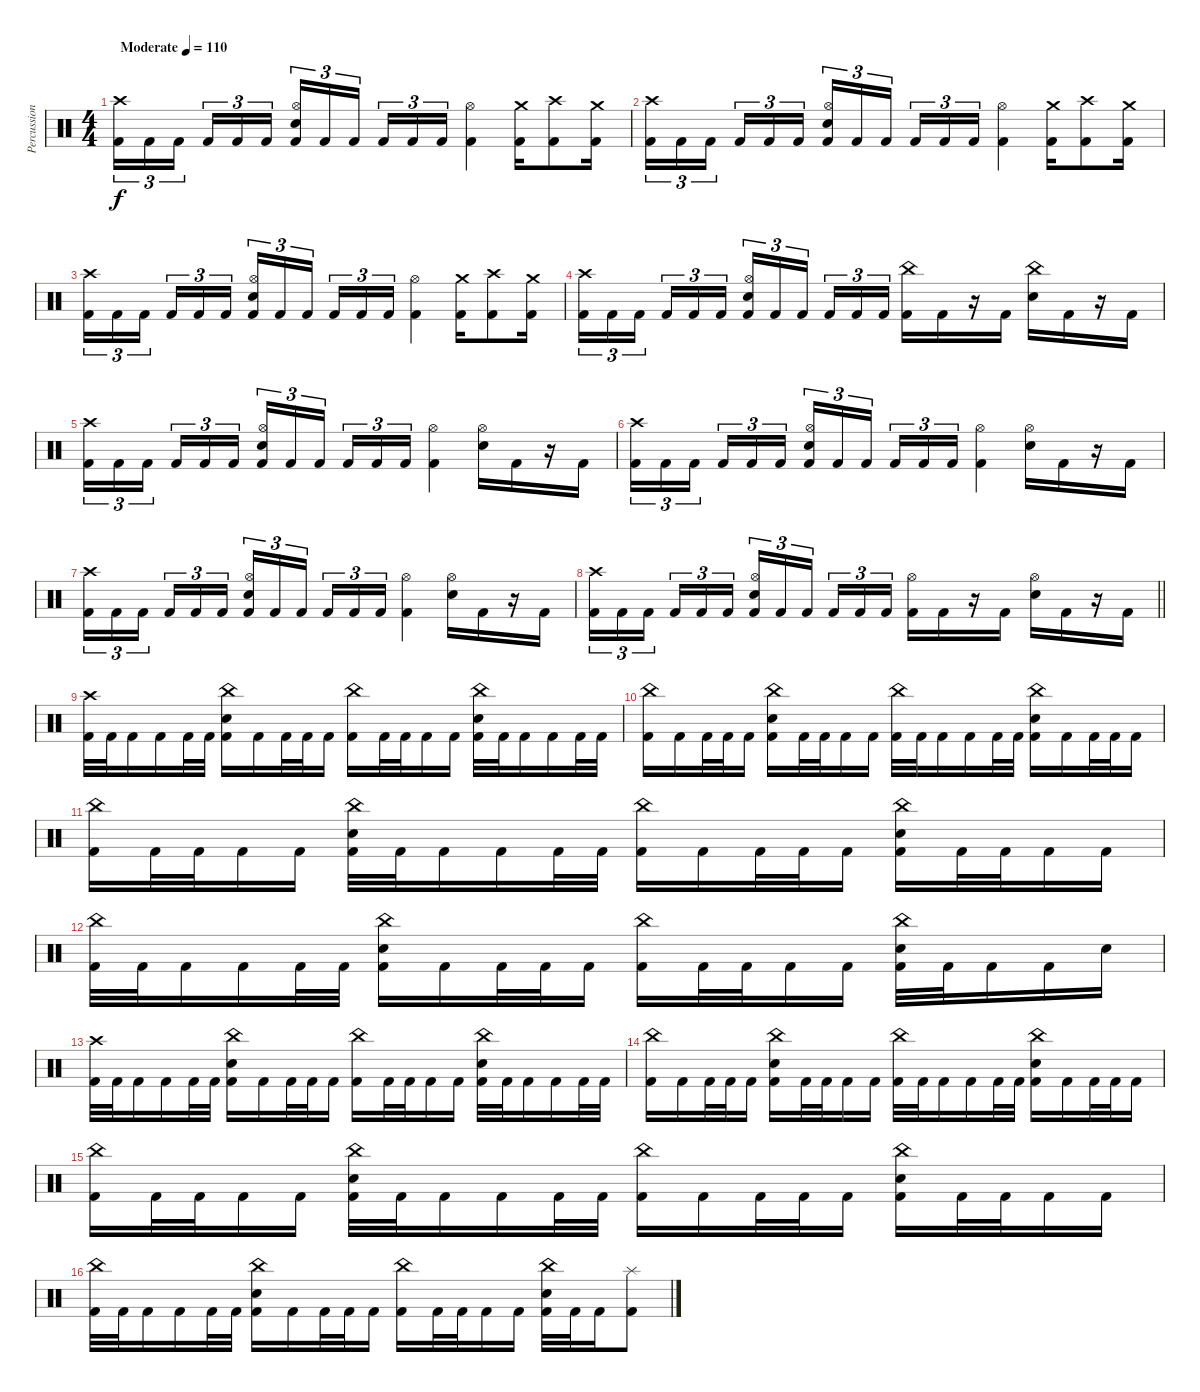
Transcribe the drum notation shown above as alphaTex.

\track ("Percussions" "Percussion") {instrument percussion}
\staff {score}
\articulation defaults
\ts (4 4)
\section ("" "")
\tempo (110 "Moderate")
\clef neutral
\ks c
("Crash high (hit)" "Kick (hit) 2").16{tu (3 2) dy f} "Kick (hit) 2".16{tu (3 2)} "Kick (hit) 2".16{tu (3 2) beam splitsecondary} "Kick (hit) 2".16{tu (3 2)} "Kick (hit) 2".16{tu (3 2)} "Kick (hit) 2".16{tu (3 2)} ("Hi-Hat (open)" "Electric Snare (hit)" "Kick (hit) 2").16{tu (3 2)} "Kick (hit) 2".16{tu (3 2)} "Kick (hit) 2".16{tu (3 2) beam splitsecondary} "Kick (hit) 2".16{tu (3 2)} "Kick (hit) 2".16{tu (3 2)} "Kick (hit) 2".16{tu (3 2)} ("Hi-Hat (open)" "Kick (hit) 2").4 ("Crash medium (hit)" "Kick (hit) 2").16 ("Crash high (hit)" "Kick (hit) 2").8 ("Crash medium (hit)" "Kick (hit) 2").16 |
("Crash high (hit)" "Kick (hit) 2").16{tu (3 2)} "Kick (hit) 2".16{tu (3 2)} "Kick (hit) 2".16{tu (3 2) beam splitsecondary} "Kick (hit) 2".16{tu (3 2)} "Kick (hit) 2".16{tu (3 2)} "Kick (hit) 2".16{tu (3 2)} ("Hi-Hat (open)" "Electric Snare (hit)" "Kick (hit) 2").16{tu (3 2)} "Kick (hit) 2".16{tu (3 2)} "Kick (hit) 2".16{tu (3 2) beam splitsecondary} "Kick (hit) 2".16{tu (3 2)} "Kick (hit) 2".16{tu (3 2)} "Kick (hit) 2".16{tu (3 2)} ("Hi-Hat (open)" "Kick (hit) 2").4 ("Crash medium (hit)" "Kick (hit) 2").16 ("Crash high (hit)" "Kick (hit) 2").8 ("Crash medium (hit)" "Kick (hit) 2").16 |
("Crash high (hit)" "Kick (hit) 2").16{tu (3 2)} "Kick (hit) 2".16{tu (3 2)} "Kick (hit) 2".16{tu (3 2) beam splitsecondary} "Kick (hit) 2".16{tu (3 2)} "Kick (hit) 2".16{tu (3 2)} "Kick (hit) 2".16{tu (3 2)} ("Hi-Hat (open)" "Electric Snare (hit)" "Kick (hit) 2").16{tu (3 2)} "Kick (hit) 2".16{tu (3 2)} "Kick (hit) 2".16{tu (3 2) beam splitsecondary} "Kick (hit) 2".16{tu (3 2)} "Kick (hit) 2".16{tu (3 2)} "Kick (hit) 2".16{tu (3 2)} ("Hi-Hat (open)" "Kick (hit) 2").4 ("Crash medium (hit)" "Kick (hit) 2").16 ("Crash high (hit)" "Kick (hit) 2").8 ("Crash medium (hit)" "Kick (hit) 2").16 |
("Crash high (hit)" "Kick (hit) 2").16{tu (3 2)} "Kick (hit) 2".16{tu (3 2)} "Kick (hit) 2".16{tu (3 2) beam splitsecondary} "Kick (hit) 2".16{tu (3 2)} "Kick (hit) 2".16{tu (3 2)} "Kick (hit) 2".16{tu (3 2)} ("Hi-Hat (open)" "Electric Snare (hit)" "Kick (hit) 2").16{tu (3 2)} "Kick (hit) 2".16{tu (3 2)} "Kick (hit) 2".16{tu (3 2) beam splitsecondary} "Kick (hit) 2".16{tu (3 2)} "Kick (hit) 2".16{tu (3 2)} "Kick (hit) 2".16{tu (3 2)} ("China (hit)" "Kick (hit) 2").16 "Kick (hit) 2".16 r.16 "Kick (hit) 2".16 ("China (hit)" "Electric Snare (hit)").16 "Kick (hit) 2".16 r.16 "Kick (hit) 2".16 |
("Crash high (hit)" "Kick (hit) 2").16{tu (3 2)} "Kick (hit) 2".16{tu (3 2)} "Kick (hit) 2".16{tu (3 2) beam splitsecondary} "Kick (hit) 2".16{tu (3 2)} "Kick (hit) 2".16{tu (3 2)} "Kick (hit) 2".16{tu (3 2)} ("Hi-Hat (open)" "Electric Snare (hit)" "Kick (hit) 2").16{tu (3 2)} "Kick (hit) 2".16{tu (3 2)} "Kick (hit) 2".16{tu (3 2) beam splitsecondary} "Kick (hit) 2".16{tu (3 2)} "Kick (hit) 2".16{tu (3 2)} "Kick (hit) 2".16{tu (3 2)} ("Hi-Hat (open)" "Kick (hit) 2").4 ("Hi-Hat (open)" "Electric Snare (hit)").16 "Kick (hit) 2".16 r.16 "Kick (hit) 2".16 |
("Crash high (hit)" "Kick (hit) 2").16{tu (3 2)} "Kick (hit) 2".16{tu (3 2)} "Kick (hit) 2".16{tu (3 2) beam splitsecondary} "Kick (hit) 2".16{tu (3 2)} "Kick (hit) 2".16{tu (3 2)} "Kick (hit) 2".16{tu (3 2)} ("Hi-Hat (open)" "Electric Snare (hit)" "Kick (hit) 2").16{tu (3 2)} "Kick (hit) 2".16{tu (3 2)} "Kick (hit) 2".16{tu (3 2) beam splitsecondary} "Kick (hit) 2".16{tu (3 2)} "Kick (hit) 2".16{tu (3 2)} "Kick (hit) 2".16{tu (3 2)} ("Hi-Hat (open)" "Kick (hit) 2").4 ("Hi-Hat (open)" "Electric Snare (hit)").16 "Kick (hit) 2".16 r.16 "Kick (hit) 2".16 |
("Crash high (hit)" "Kick (hit) 2").16{tu (3 2)} "Kick (hit) 2".16{tu (3 2)} "Kick (hit) 2".16{tu (3 2) beam splitsecondary} "Kick (hit) 2".16{tu (3 2)} "Kick (hit) 2".16{tu (3 2)} "Kick (hit) 2".16{tu (3 2)} ("Hi-Hat (open)" "Electric Snare (hit)" "Kick (hit) 2").16{tu (3 2)} "Kick (hit) 2".16{tu (3 2)} "Kick (hit) 2".16{tu (3 2) beam splitsecondary} "Kick (hit) 2".16{tu (3 2)} "Kick (hit) 2".16{tu (3 2)} "Kick (hit) 2".16{tu (3 2)} ("Hi-Hat (open)" "Kick (hit) 2").4 ("Hi-Hat (open)" "Electric Snare (hit)").16 "Kick (hit) 2".16 r.16 "Kick (hit) 2".16 |
\barLineRight lightlight
("Crash high (hit)" "Kick (hit) 2").16{tu (3 2)} "Kick (hit) 2".16{tu (3 2)} "Kick (hit) 2".16{tu (3 2) beam splitsecondary} "Kick (hit) 2".16{tu (3 2)} "Kick (hit) 2".16{tu (3 2)} "Kick (hit) 2".16{tu (3 2)} ("Hi-Hat (open)" "Electric Snare (hit)" "Kick (hit) 2").16{tu (3 2)} "Kick (hit) 2".16{tu (3 2)} "Kick (hit) 2".16{tu (3 2) beam splitsecondary} "Kick (hit) 2".16{tu (3 2)} "Kick (hit) 2".16{tu (3 2)} "Kick (hit) 2".16{tu (3 2)} ("Hi-Hat (open)" "Kick (hit) 2").16 "Kick (hit) 2".16 r.16 "Kick (hit) 2".16 ("Hi-Hat (open)" "Electric Snare (hit)").16 "Kick (hit) 2".16 r.16 "Kick (hit) 2".16 |
\section ("" "")
("Crash high (hit)" "Kick (hit) 2").32 "Kick (hit) 2".32 "Kick (hit) 2".16 "Kick (hit) 2".16 "Kick (hit) 2".32 "Kick (hit) 2".32 ("China (hit)" "Electric Snare (hit)" "Kick (hit) 2").16 "Kick (hit) 2".16 "Kick (hit) 2".32 "Kick (hit) 2".32 "Kick (hit) 2".16 ("China (hit)" "Kick (hit) 2").16 "Kick (hit) 2".32 "Kick (hit) 2".32 "Kick (hit) 2".16 "Kick (hit) 2".16 ("China (hit)" "Electric Snare (hit)" "Kick (hit) 2").32 "Kick (hit) 2".32 "Kick (hit) 2".16 "Kick (hit) 2".16 "Kick (hit) 2".32 "Kick (hit) 2".32 |
("China (hit)" "Kick (hit) 2").16 "Kick (hit) 2".16 "Kick (hit) 2".32 "Kick (hit) 2".32 "Kick (hit) 2".16 ("China (hit)" "Electric Snare (hit)" "Kick (hit) 2").16 "Kick (hit) 2".32 "Kick (hit) 2".32 "Kick (hit) 2".16 "Kick (hit) 2".16 ("China (hit)" "Kick (hit) 2").32 "Kick (hit) 2".32 "Kick (hit) 2".16 "Kick (hit) 2".16 "Kick (hit) 2".32 "Kick (hit) 2".32 ("China (hit)" "Electric Snare (hit)" "Kick (hit) 2").16 "Kick (hit) 2".16 "Kick (hit) 2".32 "Kick (hit) 2".32 "Kick (hit) 2".16 |
("China (hit)" "Kick (hit) 2").16 "Kick (hit) 2".32 "Kick (hit) 2".32 "Kick (hit) 2".16 "Kick (hit) 2".16 ("China (hit)" "Electric Snare (hit)" "Kick (hit) 2").32 "Kick (hit) 2".32 "Kick (hit) 2".16 "Kick (hit) 2".16 "Kick (hit) 2".32 "Kick (hit) 2".32 ("China (hit)" "Kick (hit) 2").16 "Kick (hit) 2".16 "Kick (hit) 2".32 "Kick (hit) 2".32 "Kick (hit) 2".16 ("China (hit)" "Electric Snare (hit)" "Kick (hit) 2").16 "Kick (hit) 2".32 "Kick (hit) 2".32 "Kick (hit) 2".16 "Kick (hit) 2".16 |
("China (hit)" "Kick (hit) 2").32 "Kick (hit) 2".32 "Kick (hit) 2".16 "Kick (hit) 2".16 "Kick (hit) 2".32 "Kick (hit) 2".32 ("China (hit)" "Electric Snare (hit)" "Kick (hit) 2").16 "Kick (hit) 2".16 "Kick (hit) 2".32 "Kick (hit) 2".32 "Kick (hit) 2".16 ("China (hit)" "Kick (hit) 2").16 "Kick (hit) 2".32 "Kick (hit) 2".32 "Kick (hit) 2".16 "Kick (hit) 2".16 ("China (hit)" "Electric Snare (hit)" "Kick (hit) 2").32 "Kick (hit) 2".32 "Kick (hit) 2".16 "Kick (hit) 2".16 "Electric Snare (hit)".16 |
("Crash high (hit)" "Kick (hit) 2").32 "Kick (hit) 2".32 "Kick (hit) 2".16 "Kick (hit) 2".16 "Kick (hit) 2".32 "Kick (hit) 2".32 ("China (hit)" "Electric Snare (hit)" "Kick (hit) 2").16 "Kick (hit) 2".16 "Kick (hit) 2".32 "Kick (hit) 2".32 "Kick (hit) 2".16 ("China (hit)" "Kick (hit) 2").16 "Kick (hit) 2".32 "Kick (hit) 2".32 "Kick (hit) 2".16 "Kick (hit) 2".16 ("China (hit)" "Electric Snare (hit)" "Kick (hit) 2").32 "Kick (hit) 2".32 "Kick (hit) 2".16 "Kick (hit) 2".16 "Kick (hit) 2".32 "Kick (hit) 2".32 |
("China (hit)" "Kick (hit) 2").16 "Kick (hit) 2".16 "Kick (hit) 2".32 "Kick (hit) 2".32 "Kick (hit) 2".16 ("China (hit)" "Electric Snare (hit)" "Kick (hit) 2").16 "Kick (hit) 2".32 "Kick (hit) 2".32 "Kick (hit) 2".16 "Kick (hit) 2".16 ("China (hit)" "Kick (hit) 2").32 "Kick (hit) 2".32 "Kick (hit) 2".16 "Kick (hit) 2".16 "Kick (hit) 2".32 "Kick (hit) 2".32 ("China (hit)" "Electric Snare (hit)" "Kick (hit) 2").16 "Kick (hit) 2".16 "Kick (hit) 2".32 "Kick (hit) 2".32 "Kick (hit) 2".16 |
("China (hit)" "Kick (hit) 2").16 "Kick (hit) 2".32 "Kick (hit) 2".32 "Kick (hit) 2".16 "Kick (hit) 2".16 ("China (hit)" "Electric Snare (hit)" "Kick (hit) 2").32 "Kick (hit) 2".32 "Kick (hit) 2".16 "Kick (hit) 2".16 "Kick (hit) 2".32 "Kick (hit) 2".32 ("China (hit)" "Kick (hit) 2").16 "Kick (hit) 2".16 "Kick (hit) 2".32 "Kick (hit) 2".32 "Kick (hit) 2".16 ("China (hit)" "Electric Snare (hit)" "Kick (hit) 2").16 "Kick (hit) 2".32 "Kick (hit) 2".32 "Kick (hit) 2".16 "Kick (hit) 2".16 |
("China (hit)" "Kick (hit) 2").32 "Kick (hit) 2".32 "Kick (hit) 2".16 "Kick (hit) 2".16 "Kick (hit) 2".32 "Kick (hit) 2".32 ("China (hit)" "Electric Snare (hit)" "Kick (hit) 2").16 "Kick (hit) 2".16 "Kick (hit) 2".32 "Kick (hit) 2".32 "Kick (hit) 2".16 ("China (hit)" "Kick (hit) 2").16 "Kick (hit) 2".32 "Kick (hit) 2".32 "Kick (hit) 2".16 "Kick (hit) 2".16 ("China (hit)" "Electric Snare (hit)" "Kick (hit) 2").32 "Kick (hit) 2".32 "Kick (hit) 2".16 ("Splash (hit)" "Kick (hit) 2").8
